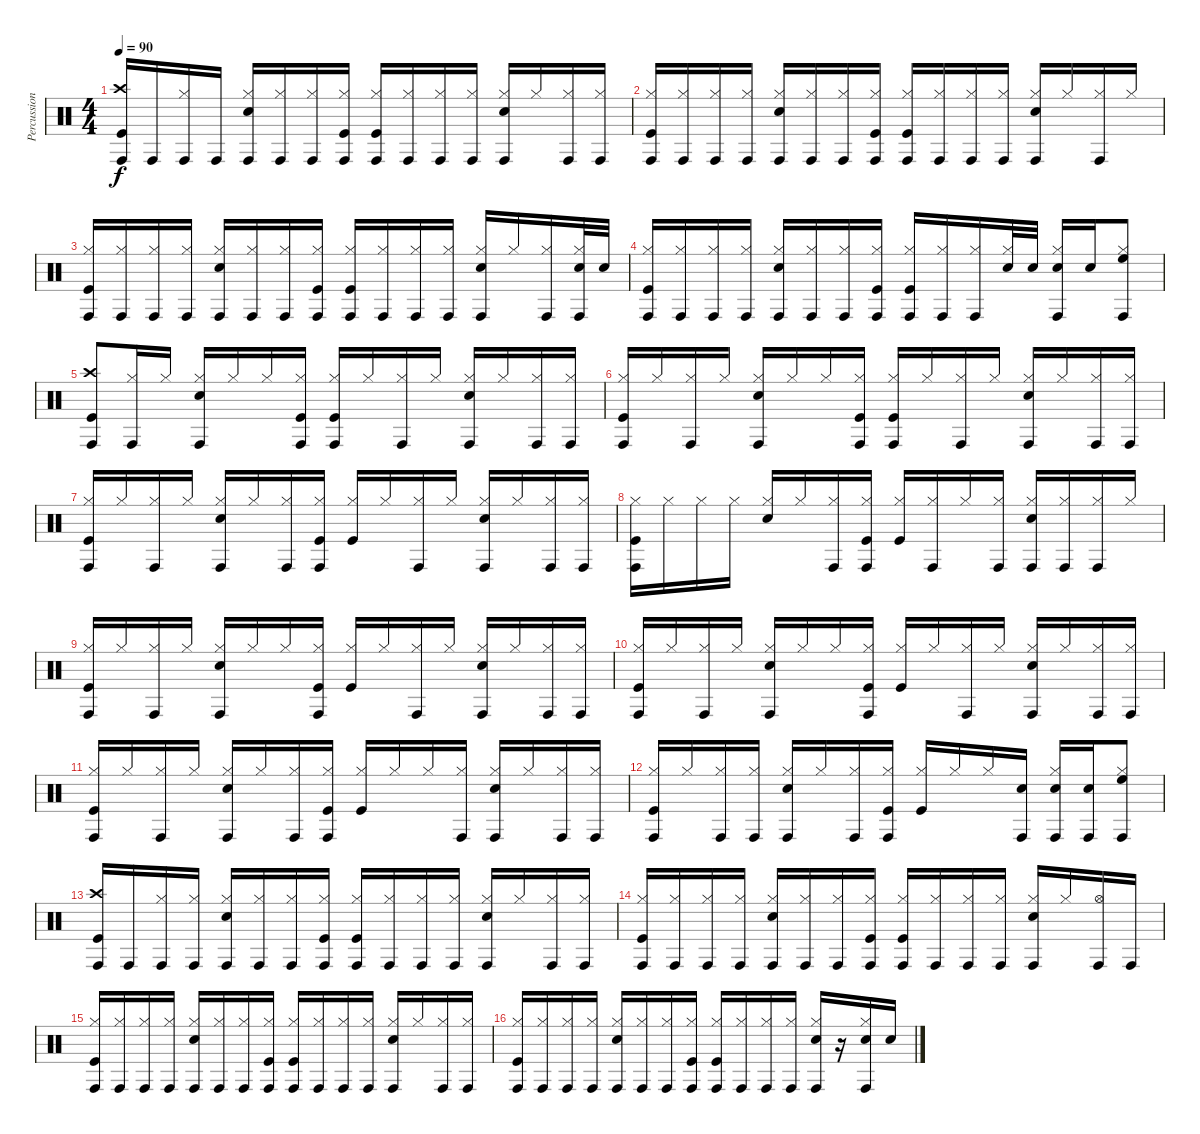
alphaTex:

\track ("Percussions" "Percussion") {instrument percussion}
\staff {score}
\articulation defaults
\ts (4 4)
\tempo 90
\clef neutral
\ks c
("Crash high (hit)" "Kick (hit)" "Conga high (hit)").16{dy f} "Conga high (hit)".16 ("Hi-Hat (closed)" "Conga high (hit)").16 "Conga high (hit)".16 ("Hi-Hat (closed)" "Electric Snare (hit)" "Conga high (hit)").16 ("Hi-Hat (closed)" "Conga high (hit)").16 ("Hi-Hat (closed)" "Conga high (hit)").16 ("Hi-Hat (closed)" "Kick (hit)" "Conga high (hit)").16 ("Hi-Hat (closed)" "Kick (hit)" "Conga high (hit)").16 ("Hi-Hat (closed)" "Conga high (hit)").16 ("Hi-Hat (closed)" "Conga high (hit)").16 ("Hi-Hat (closed)" "Conga high (hit)").16 ("Hi-Hat (closed)" "Electric Snare (hit)" "Conga high (hit)").16 "Hi-Hat (closed)".16 ("Hi-Hat (closed)" "Conga high (hit)").16 ("Hi-Hat (closed)" "Conga high (hit)").16 |
("Hi-Hat (closed)" "Kick (hit)" "Conga high (hit)").16 ("Hi-Hat (closed)" "Conga high (hit)").16 ("Hi-Hat (closed)" "Conga high (hit)").16 ("Hi-Hat (closed)" "Conga high (hit)").16 ("Hi-Hat (closed)" "Electric Snare (hit)" "Conga high (hit)").16 ("Hi-Hat (closed)" "Conga high (hit)").16 ("Hi-Hat (closed)" "Conga high (hit)").16 ("Hi-Hat (closed)" "Kick (hit)" "Conga high (hit)").16 ("Hi-Hat (closed)" "Kick (hit)" "Conga high (hit)").16 ("Hi-Hat (closed)" "Conga high (hit)").16 ("Hi-Hat (closed)" "Conga high (hit)").16 ("Hi-Hat (closed)" "Conga high (hit)").16 ("Hi-Hat (closed)" "Electric Snare (hit)" "Conga high (hit)").16 "Hi-Hat (closed)".16 ("Hi-Hat (closed)" "Conga high (hit)").16 "Hi-Hat (closed)".16 |
("Hi-Hat (closed)" "Kick (hit)" "Conga high (hit)").16 ("Hi-Hat (closed)" "Conga high (hit)").16 ("Hi-Hat (closed)" "Conga high (hit)").16 ("Hi-Hat (closed)" "Conga high (hit)").16 ("Hi-Hat (closed)" "Electric Snare (hit)" "Conga high (hit)").16 ("Hi-Hat (closed)" "Conga high (hit)").16 ("Hi-Hat (closed)" "Conga high (hit)").16 ("Hi-Hat (closed)" "Kick (hit)" "Conga high (hit)").16 ("Hi-Hat (closed)" "Kick (hit)" "Conga high (hit)").16 ("Hi-Hat (closed)" "Conga high (hit)").16 ("Hi-Hat (closed)" "Conga high (hit)").16 ("Hi-Hat (closed)" "Conga high (hit)").16 ("Hi-Hat (closed)" "Electric Snare (hit)" "Conga high (hit)").16 "Hi-Hat (closed)".16 ("Hi-Hat (closed)" "Conga high (hit)").16 ("Hi-Hat (closed)" "Electric Snare (hit)" "Conga high (hit)").32 "Electric Snare (hit)".32 |
("Hi-Hat (closed)" "Kick (hit)" "Conga high (hit)").16 ("Hi-Hat (closed)" "Conga high (hit)").16 ("Hi-Hat (closed)" "Conga high (hit)").16 ("Hi-Hat (closed)" "Conga high (hit)").16 ("Hi-Hat (closed)" "Electric Snare (hit)" "Conga high (hit)").16 ("Hi-Hat (closed)" "Conga high (hit)").16 ("Hi-Hat (closed)" "Conga high (hit)").16 ("Hi-Hat (closed)" "Kick (hit)" "Conga high (hit)").16 ("Hi-Hat (closed)" "Kick (hit)" "Conga high (hit)").16 ("Hi-Hat (closed)" "Conga high (hit)").16 ("Hi-Hat (closed)" "Conga high (hit)").16 ("Hi-Hat (closed)" "Electric Snare (hit)").32 "Electric Snare (hit)".32 ("Hi-Hat (closed)" "Electric Snare (hit)" "Conga high (hit)").16 "Electric Snare (hit)".16 ("Hi-Hat (closed)" "High Floor Tom (hit)" "Conga high (hit)").8 |
("Crash high (hit)" "Kick (hit)" "Conga high (hit)").8 ("Hi-Hat (closed)" "Conga high (hit)").16 "Hi-Hat (closed)".16 ("Hi-Hat (closed)" "Electric Snare (hit)" "Conga high (hit)").16 "Hi-Hat (closed)".16 "Hi-Hat (closed)".16 ("Hi-Hat (closed)" "Kick (hit)" "Conga high (hit)").16 ("Hi-Hat (closed)" "Kick (hit)" "Conga high (hit)").16 "Hi-Hat (closed)".16 ("Hi-Hat (closed)" "Conga high (hit)").16 "Hi-Hat (closed)".16 ("Hi-Hat (closed)" "Electric Snare (hit)" "Conga high (hit)").16 "Hi-Hat (closed)".16 ("Hi-Hat (closed)" "Conga high (hit)").16 ("Hi-Hat (closed)" "Conga high (hit)").16 |
("Hi-Hat (closed)" "Kick (hit)" "Conga high (hit)").16 "Hi-Hat (closed)".16 ("Hi-Hat (closed)" "Conga high (hit)").16 "Hi-Hat (closed)".16 ("Hi-Hat (closed)" "Electric Snare (hit)" "Conga high (hit)").16 "Hi-Hat (closed)".16 "Hi-Hat (closed)".16 ("Hi-Hat (closed)" "Kick (hit)" "Conga high (hit)").16 ("Hi-Hat (closed)" "Kick (hit)" "Conga high (hit)").16 "Hi-Hat (closed)".16 ("Hi-Hat (closed)" "Conga high (hit)").16 "Hi-Hat (closed)".16 ("Hi-Hat (closed)" "Electric Snare (hit)" "Conga high (hit)").16 "Hi-Hat (closed)".16 ("Hi-Hat (closed)" "Conga high (hit)").16 ("Hi-Hat (closed)" "Conga high (hit)").16 |
("Hi-Hat (closed)" "Kick (hit)" "Conga high (hit)").16 "Hi-Hat (closed)".16 ("Hi-Hat (closed)" "Conga high (hit)").16 "Hi-Hat (closed)".16 ("Hi-Hat (closed)" "Electric Snare (hit)" "Conga high (hit)").16 "Hi-Hat (closed)".16 ("Hi-Hat (closed)" "Conga high (hit)").16 ("Hi-Hat (closed)" "Kick (hit)" "Conga high (hit)").16 ("Hi-Hat (closed)" "Kick (hit)").16 "Hi-Hat (closed)".16 ("Hi-Hat (closed)" "Conga high (hit)").16 "Hi-Hat (closed)".16 ("Hi-Hat (closed)" "Electric Snare (hit)" "Conga high (hit)").16 "Hi-Hat (closed)".16 ("Hi-Hat (closed)" "Conga high (hit)").16 ("Hi-Hat (closed)" "Conga high (hit)").16 |
("Hi-Hat (closed)" "Kick (hit)" "Conga high (hit)").16 "Hi-Hat (closed)".16 "Hi-Hat (closed)".16 "Hi-Hat (closed)".16 ("Hi-Hat (closed)" "Electric Snare (hit)").16 "Hi-Hat (closed)".16 ("Hi-Hat (closed)" "Conga high (hit)").16 ("Hi-Hat (closed)" "Kick (hit)" "Conga high (hit)").16 ("Hi-Hat (closed)" "Kick (hit)").16 ("Hi-Hat (closed)" "Conga high (hit)").16 "Hi-Hat (closed)".16 ("Hi-Hat (closed)" "Conga high (hit)").16 ("Hi-Hat (closed)" "Electric Snare (hit)" "Conga high (hit)").16 ("Hi-Hat (closed)" "Conga high (hit)").16 ("Hi-Hat (closed)" "Conga high (hit)").16 "Hi-Hat (closed)".16 |
("Hi-Hat (closed)" "Kick (hit)" "Conga high (hit)").16 "Hi-Hat (closed)".16 ("Hi-Hat (closed)" "Conga high (hit)").16 "Hi-Hat (closed)".16 ("Hi-Hat (closed)" "Electric Snare (hit)" "Conga high (hit)").16 "Hi-Hat (closed)".16 "Hi-Hat (closed)".16 ("Hi-Hat (closed)" "Kick (hit)" "Conga high (hit)").16 ("Hi-Hat (closed)" "Kick (hit)").16 "Hi-Hat (closed)".16 ("Hi-Hat (closed)" "Conga high (hit)").16 "Hi-Hat (closed)".16 ("Hi-Hat (closed)" "Electric Snare (hit)" "Conga high (hit)").16 "Hi-Hat (closed)".16 ("Hi-Hat (closed)" "Conga high (hit)").16 ("Hi-Hat (closed)" "Conga high (hit)").16 |
("Hi-Hat (closed)" "Kick (hit)" "Conga high (hit)").16 "Hi-Hat (closed)".16 ("Hi-Hat (closed)" "Conga high (hit)").16 "Hi-Hat (closed)".16 ("Hi-Hat (closed)" "Electric Snare (hit)" "Conga high (hit)").16 "Hi-Hat (closed)".16 "Hi-Hat (closed)".16 ("Hi-Hat (closed)" "Kick (hit)" "Conga high (hit)").16 ("Hi-Hat (closed)" "Kick (hit)").16 "Hi-Hat (closed)".16 ("Hi-Hat (closed)" "Conga high (hit)").16 "Hi-Hat (closed)".16 ("Hi-Hat (closed)" "Electric Snare (hit)" "Conga high (hit)").16 "Hi-Hat (closed)".16 ("Hi-Hat (closed)" "Conga high (hit)").16 ("Hi-Hat (closed)" "Conga high (hit)").16 |
("Hi-Hat (closed)" "Kick (hit)" "Conga high (hit)").16 "Hi-Hat (closed)".16 ("Hi-Hat (closed)" "Conga high (hit)").16 "Hi-Hat (closed)".16 ("Hi-Hat (closed)" "Electric Snare (hit)" "Conga high (hit)").16 "Hi-Hat (closed)".16 ("Hi-Hat (closed)" "Conga high (hit)").16 ("Hi-Hat (closed)" "Kick (hit)" "Conga high (hit)").16 ("Hi-Hat (closed)" "Kick (hit)").16 "Hi-Hat (closed)".16 "Hi-Hat (closed)".16 ("Hi-Hat (closed)" "Conga high (hit)").16 ("Hi-Hat (closed)" "Electric Snare (hit)" "Conga high (hit)").16 "Hi-Hat (closed)".16 ("Hi-Hat (closed)" "Conga high (hit)").16 ("Hi-Hat (closed)" "Conga high (hit)").16 |
("Hi-Hat (closed)" "Kick (hit)" "Conga high (hit)").16 "Hi-Hat (closed)".16 ("Hi-Hat (closed)" "Conga high (hit)").16 ("Hi-Hat (closed)" "Conga high (hit)").16 ("Hi-Hat (closed)" "Electric Snare (hit)" "Conga high (hit)").16 "Hi-Hat (closed)".16 ("Hi-Hat (closed)" "Conga high (hit)").16 ("Hi-Hat (closed)" "Kick (hit)" "Conga high (hit)").16 ("Hi-Hat (closed)" "Kick (hit)").16 "Hi-Hat (closed)".16 "Hi-Hat (closed)".16 ("Electric Snare (hit)" "Conga high (hit)").16 ("Hi-Hat (closed)" "Electric Snare (hit)" "Conga high (hit)").16 ("Electric Snare (hit)" "Conga high (hit)").16 ("Hi-Hat (closed)" "High Floor Tom (hit)" "Conga high (hit)").8 |
("Crash high (hit)" "Kick (hit)" "Conga high (hit)").16 "Conga high (hit)".16 ("Hi-Hat (closed)" "Conga high (hit)").16 ("Hi-Hat (closed)" "Conga high (hit)").16 ("Hi-Hat (closed)" "Electric Snare (hit)" "Conga high (hit)").16 ("Hi-Hat (closed)" "Conga high (hit)").16 ("Hi-Hat (closed)" "Conga high (hit)").16 ("Hi-Hat (closed)" "Kick (hit)" "Conga high (hit)").16 ("Hi-Hat (closed)" "Kick (hit)" "Conga high (hit)").16 ("Hi-Hat (closed)" "Conga high (hit)").16 ("Hi-Hat (closed)" "Conga high (hit)").16 ("Hi-Hat (closed)" "Conga high (hit)").16 ("Hi-Hat (closed)" "Electric Snare (hit)" "Conga high (hit)").16 "Hi-Hat (closed)".16 ("Hi-Hat (closed)" "Conga high (hit)").16 ("Hi-Hat (closed)" "Conga high (hit)").16 |
("Hi-Hat (closed)" "Kick (hit)" "Conga high (hit)").16 ("Hi-Hat (closed)" "Conga high (hit)").16 ("Hi-Hat (closed)" "Conga high (hit)").16 ("Hi-Hat (closed)" "Conga high (hit)").16 ("Hi-Hat (closed)" "Electric Snare (hit)" "Conga high (hit)").16 ("Hi-Hat (closed)" "Conga high (hit)").16 ("Hi-Hat (closed)" "Conga high (hit)").16 ("Hi-Hat (closed)" "Kick (hit)" "Conga high (hit)").16 ("Hi-Hat (closed)" "Kick (hit)" "Conga high (hit)").16 ("Hi-Hat (closed)" "Conga high (hit)").16 ("Hi-Hat (closed)" "Conga high (hit)").16 ("Hi-Hat (closed)" "Conga high (hit)").16 ("Hi-Hat (closed)" "Electric Snare (hit)" "Conga high (hit)").16 "Hi-Hat (closed)".16 ("Hi-Hat (open)" "Conga high (hit)").16 "Conga high (hit)".16 |
("Hi-Hat (closed)" "Kick (hit)" "Conga high (hit)").16 ("Hi-Hat (closed)" "Conga high (hit)").16 ("Hi-Hat (closed)" "Conga high (hit)").16 ("Hi-Hat (closed)" "Conga high (hit)").16 ("Hi-Hat (closed)" "Electric Snare (hit)" "Conga high (hit)").16 ("Hi-Hat (closed)" "Conga high (hit)").16 ("Hi-Hat (closed)" "Conga high (hit)").16 ("Hi-Hat (closed)" "Kick (hit)" "Conga high (hit)").16 ("Hi-Hat (closed)" "Kick (hit)" "Conga high (hit)").16 ("Hi-Hat (closed)" "Conga high (hit)").16 ("Hi-Hat (closed)" "Conga high (hit)").16 ("Hi-Hat (closed)" "Conga high (hit)").16 ("Hi-Hat (closed)" "Electric Snare (hit)" "Conga high (hit)").16 "Hi-Hat (closed)".16 ("Hi-Hat (closed)" "Conga high (hit)").16 ("Hi-Hat (closed)" "Conga high (hit)").16 |
("Hi-Hat (closed)" "Kick (hit)" "Conga high (hit)").16 ("Hi-Hat (closed)" "Conga high (hit)").16 ("Hi-Hat (closed)" "Conga high (hit)").16 ("Hi-Hat (closed)" "Conga high (hit)").16 ("Hi-Hat (closed)" "Electric Snare (hit)" "Conga high (hit)").16 ("Hi-Hat (closed)" "Conga high (hit)").16 ("Hi-Hat (closed)" "Conga high (hit)").16 ("Hi-Hat (closed)" "Kick (hit)" "Conga high (hit)").16 ("Hi-Hat (closed)" "Kick (hit)" "Conga high (hit)").16 ("Hi-Hat (closed)" "Conga high (hit)").16 ("Hi-Hat (closed)" "Conga high (hit)").16 ("Hi-Hat (closed)" "Conga high (hit)").16 ("Hi-Hat (closed)" "Electric Snare (hit)" "Conga high (hit)").16 r.16 ("Hi-Hat (closed)" "Electric Snare (hit)" "Conga high (hit)").16 "Electric Snare (hit)".16
